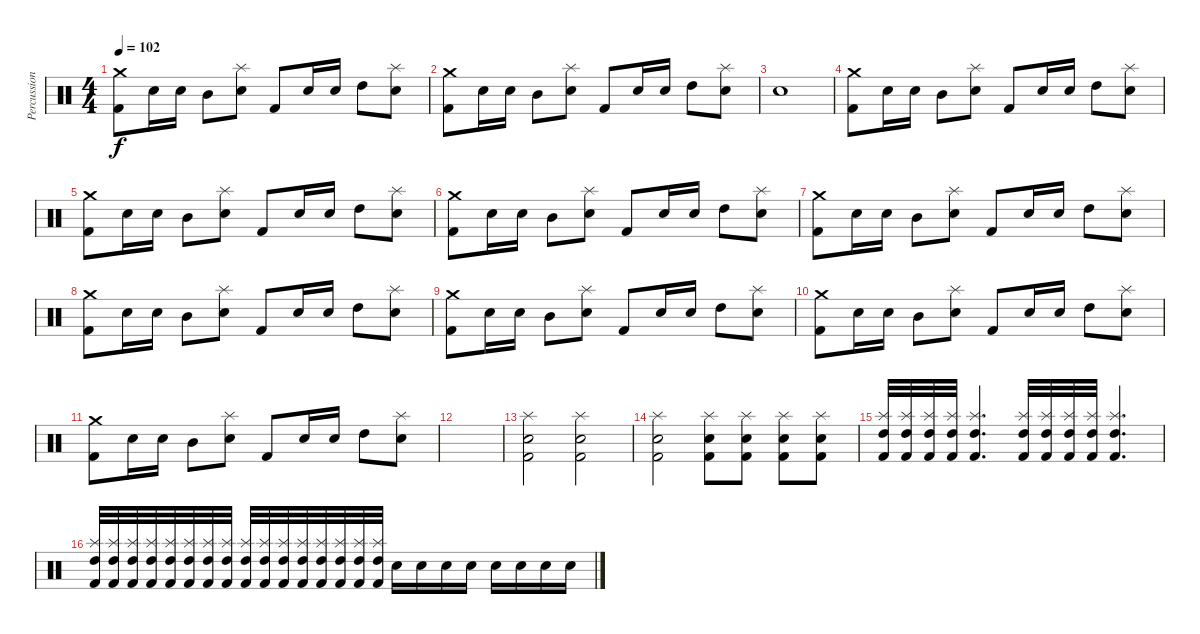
\track ("Percussioni" "Percussion") {instrument percussion}
\staff {score}
\articulation defaults
\ts (4 4)
\tempo 102
\clef neutral
\ks c
("Crash medium (hit)" "Kick (hit) 2").8{dy f} "Snare (hit) 2".16 "Snare (hit) 2".16 "Mid Tom (hit)".8 ("Splash (hit)" "Snare (hit) 2").8 "Kick (hit) 2".8 "Snare (hit) 2".16 "Snare (hit) 2".16 "High Tom (hit)".8 ("Splash (hit)" "Snare (hit) 2").8 |
("Crash medium (hit)" "Kick (hit) 2").8 "Snare (hit) 2".16 "Snare (hit) 2".16 "Mid Tom (hit)".8 ("Splash (hit)" "Snare (hit) 2").8 "Kick (hit) 2".8 "Snare (hit) 2".16 "Snare (hit) 2".16 "High Tom (hit)".8 ("Splash (hit)" "Snare (hit) 2").8 |
"Snare (hit) 2".1 |
("Crash medium (hit)" "Kick (hit) 2").8 "Snare (hit) 2".16 "Snare (hit) 2".16 "Mid Tom (hit)".8 ("Splash (hit)" "Snare (hit) 2").8 "Kick (hit) 2".8 "Snare (hit) 2".16 "Snare (hit) 2".16 "High Tom (hit)".8 ("Splash (hit)" "Snare (hit) 2").8 |
("Crash medium (hit)" "Kick (hit) 2").8 "Snare (hit) 2".16 "Snare (hit) 2".16 "Mid Tom (hit)".8 ("Splash (hit)" "Snare (hit) 2").8 "Kick (hit) 2".8 "Snare (hit) 2".16 "Snare (hit) 2".16 "High Tom (hit)".8 ("Splash (hit)" "Snare (hit) 2").8 |
("Crash medium (hit)" "Kick (hit) 2").8 "Snare (hit) 2".16 "Snare (hit) 2".16 "Mid Tom (hit)".8 ("Splash (hit)" "Snare (hit) 2").8 "Kick (hit) 2".8 "Snare (hit) 2".16 "Snare (hit) 2".16 "High Tom (hit)".8 ("Splash (hit)" "Snare (hit) 2").8 |
("Crash medium (hit)" "Kick (hit) 2").8 "Snare (hit) 2".16 "Snare (hit) 2".16 "Mid Tom (hit)".8 ("Splash (hit)" "Snare (hit) 2").8 "Kick (hit) 2".8 "Snare (hit) 2".16 "Snare (hit) 2".16 "High Tom (hit)".8 ("Splash (hit)" "Snare (hit) 2").8 |
("Crash medium (hit)" "Kick (hit) 2").8 "Snare (hit) 2".16 "Snare (hit) 2".16 "Mid Tom (hit)".8 ("Splash (hit)" "Snare (hit) 2").8 "Kick (hit) 2".8 "Snare (hit) 2".16 "Snare (hit) 2".16 "High Tom (hit)".8 ("Splash (hit)" "Snare (hit) 2").8 |
("Crash medium (hit)" "Kick (hit) 2").8 "Snare (hit) 2".16 "Snare (hit) 2".16 "Mid Tom (hit)".8 ("Splash (hit)" "Snare (hit) 2").8 "Kick (hit) 2".8 "Snare (hit) 2".16 "Snare (hit) 2".16 "High Tom (hit)".8 ("Splash (hit)" "Snare (hit) 2").8 |
("Crash medium (hit)" "Kick (hit) 2").8 "Snare (hit) 2".16 "Snare (hit) 2".16 "Mid Tom (hit)".8 ("Splash (hit)" "Snare (hit) 2").8 "Kick (hit) 2".8 "Snare (hit) 2".16 "Snare (hit) 2".16 "High Tom (hit)".8 ("Splash (hit)" "Snare (hit) 2").8 |
("Crash medium (hit)" "Kick (hit) 2").8 "Snare (hit) 2".16 "Snare (hit) 2".16 "Mid Tom (hit)".8 ("Splash (hit)" "Snare (hit) 2").8 "Kick (hit) 2".8 "Snare (hit) 2".16 "Snare (hit) 2".16 "High Tom (hit)".8 ("Splash (hit)" "Snare (hit) 2").8 |
|
("Splash (hit)" "Snare (hit) 2" "Kick (hit) 2").2 ("Splash (hit)" "Snare (hit) 2" "Kick (hit) 2").2 |
("Splash (hit)" "Snare (hit) 2" "Kick (hit) 2").2 ("Splash (hit)" "Snare (hit) 2" "Kick (hit) 2").8 ("Splash (hit)" "Snare (hit) 2" "Kick (hit) 2").8 ("Splash (hit)" "Snare (hit) 2" "Kick (hit) 2").8 ("Splash (hit)" "Snare (hit) 2" "Kick (hit) 2").8 |
("Splash (hit)" "High Tom (hit)" "Kick (hit) 2").32 ("Splash (hit)" "High Tom (hit)" "Kick (hit) 2").32 ("Splash (hit)" "High Tom (hit)" "Kick (hit) 2").32 ("Splash (hit)" "High Tom (hit)" "Kick (hit) 2").32 ("Splash (hit)" "High Tom (hit)" "Kick (hit) 2").4{d} ("Splash (hit)" "High Tom (hit)" "Kick (hit) 2").32 ("Splash (hit)" "High Tom (hit)" "Kick (hit) 2").32 ("Splash (hit)" "High Tom (hit)" "Kick (hit) 2").32 ("Splash (hit)" "High Tom (hit)" "Kick (hit) 2").32 ("Splash (hit)" "High Tom (hit)" "Kick (hit) 2").4{d} |
("Splash (hit)" "High Tom (hit)" "Kick (hit) 2").32 ("Splash (hit)" "High Tom (hit)" "Kick (hit) 2").32 ("Splash (hit)" "High Tom (hit)" "Kick (hit) 2").32 ("Splash (hit)" "High Tom (hit)" "Kick (hit) 2").32 ("Splash (hit)" "High Tom (hit)" "Kick (hit) 2").32 ("Splash (hit)" "High Tom (hit)" "Kick (hit) 2").32 ("Splash (hit)" "High Tom (hit)" "Kick (hit) 2").32 ("Splash (hit)" "High Tom (hit)" "Kick (hit) 2").32 ("Splash (hit)" "High Tom (hit)" "Kick (hit) 2").32 ("Splash (hit)" "High Tom (hit)" "Kick (hit) 2").32 ("Splash (hit)" "High Tom (hit)" "Kick (hit) 2").32 ("Splash (hit)" "High Tom (hit)" "Kick (hit) 2").32 ("Splash (hit)" "High Tom (hit)" "Kick (hit) 2").32 ("Splash (hit)" "High Tom (hit)" "Kick (hit) 2").32 ("Splash (hit)" "High Tom (hit)" "Kick (hit) 2").32 ("Splash (hit)" "High Tom (hit)" "Kick (hit) 2").32 "Snare (hit) 2".16 "Snare (hit) 2".16 "Snare (hit) 2".16 "Snare (hit) 2".16 "Snare (hit) 2".16 "Snare (hit) 2".16 "Snare (hit) 2".16 "Snare (hit) 2".16
